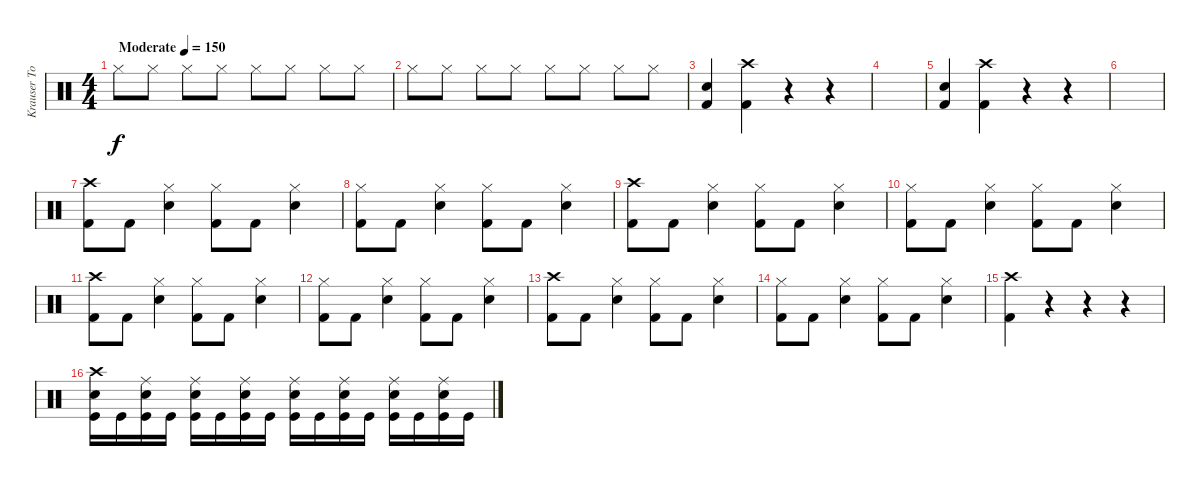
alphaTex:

\track ("Krauser Tolixon" "Krauser To") {instrument percussion}
\staff {score}
\articulation defaults
\ts (4 4)
\tempo (150 "Moderate")
\clef neutral
\ks c "Hi-Hat (closed)".8{dy f} "Hi-Hat (closed)".8 "Hi-Hat (closed)".8 "Hi-Hat (closed)".8 "Hi-Hat (closed)".8 "Hi-Hat (closed)".8 "Hi-Hat (closed)".8 "Hi-Hat (closed)".8
|
"Hi-Hat (closed)".8 "Hi-Hat (closed)".8 "Hi-Hat (closed)".8 "Hi-Hat (closed)".8 "Hi-Hat (closed)".8 "Hi-Hat (closed)".8 "Hi-Hat (closed)".8 "Hi-Hat (closed)".8 |
("Kick (hit) 2" "Electric Snare (hit)").4 ("Kick (hit) 2" "Crash high (hit)").4 r.4 r.4 |
|
("Kick (hit) 2" "Electric Snare (hit)").4 ("Kick (hit) 2" "Crash high (hit)").4 r.4 r.4 |
|
("Kick (hit) 2" "Crash high (hit)").8 "Kick (hit) 2".8 ("Electric Snare (hit)" "Hi-Hat (closed)").4 ("Kick (hit) 2" "Hi-Hat (closed)").8 "Kick (hit) 2".8 ("Electric Snare (hit)" "Hi-Hat (closed)").4 |
("Kick (hit) 2" "Hi-Hat (closed)").8 "Kick (hit) 2".8 ("Electric Snare (hit)" "Hi-Hat (closed)").4 ("Kick (hit) 2" "Hi-Hat (closed)").8 "Kick (hit) 2".8 ("Electric Snare (hit)" "Hi-Hat (closed)").4 |
("Kick (hit) 2" "Crash high (hit)").8 "Kick (hit) 2".8 ("Electric Snare (hit)" "Hi-Hat (closed)").4 ("Kick (hit) 2" "Hi-Hat (closed)").8 "Kick (hit) 2".8 ("Electric Snare (hit)" "Hi-Hat (closed)").4 |
("Kick (hit) 2" "Hi-Hat (closed)").8 "Kick (hit) 2".8 ("Electric Snare (hit)" "Hi-Hat (closed)").4 ("Kick (hit) 2" "Hi-Hat (closed)").8 "Kick (hit) 2".8 ("Electric Snare (hit)" "Hi-Hat (closed)").4 |
("Kick (hit) 2" "Crash high (hit)").8 "Kick (hit) 2".8 ("Electric Snare (hit)" "Hi-Hat (closed)").4 ("Kick (hit) 2" "Hi-Hat (closed)").8 "Kick (hit) 2".8 ("Electric Snare (hit)" "Hi-Hat (closed)").4 |
("Kick (hit) 2" "Hi-Hat (closed)").8 "Kick (hit) 2".8 ("Electric Snare (hit)" "Hi-Hat (closed)").4 ("Kick (hit) 2" "Hi-Hat (closed)").8 "Kick (hit) 2".8 ("Electric Snare (hit)" "Hi-Hat (closed)").4 |
("Kick (hit) 2" "Crash high (hit)").8 "Kick (hit) 2".8 ("Electric Snare (hit)" "Hi-Hat (closed)").4 ("Kick (hit) 2" "Hi-Hat (closed)").8 "Kick (hit) 2".8 ("Electric Snare (hit)" "Hi-Hat (closed)").4 |
("Kick (hit) 2" "Hi-Hat (closed)").8 "Kick (hit) 2".8 ("Electric Snare (hit)" "Hi-Hat (closed)").4 ("Kick (hit) 2" "Hi-Hat (closed)").8 "Kick (hit) 2".8 ("Electric Snare (hit)" "Hi-Hat (closed)").4 |
("Kick (hit) 2" "Crash high (hit)").4 r.4 r.4 r.4 |
("Crash high (hit)" "Electric Snare (hit)" "Kick (hit)").16 "Kick (hit)".16 ("Ride (middle)" "Electric Snare (hit)" "Kick (hit)").16 "Kick (hit)".16 ("Ride (middle)" "Electric Snare (hit)" "Kick (hit)").16 "Kick (hit)".16 ("Ride (middle)" "Electric Snare (hit)" "Kick (hit)").16 "Kick (hit)".16 ("Ride (middle)" "Electric Snare (hit)" "Kick (hit)").16 "Kick (hit)".16 ("Ride (middle)" "Electric Snare (hit)" "Kick (hit)").16 "Kick (hit)".16 ("Ride (middle)" "Electric Snare (hit)" "Kick (hit)").16 "Kick (hit)".16 ("Ride (middle)" "Electric Snare (hit)" "Kick (hit)").16 "Kick (hit)".16
